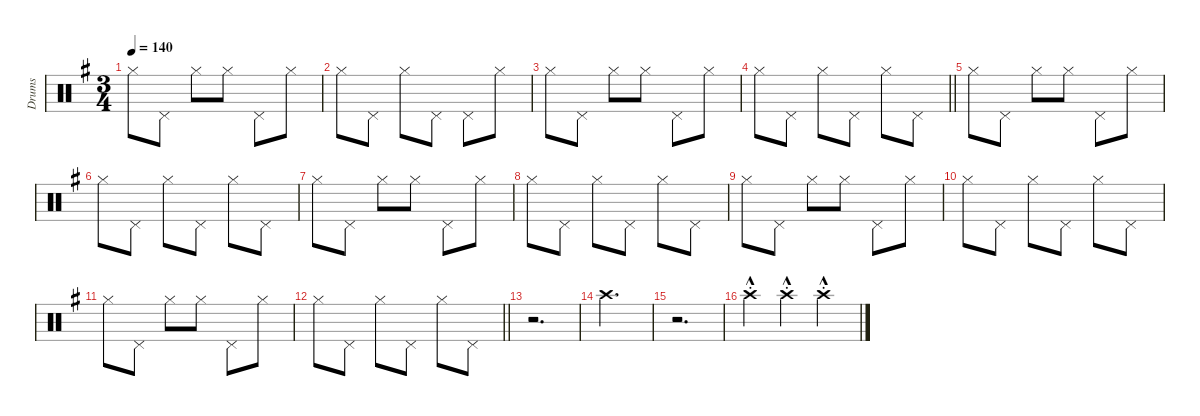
\defaultSystemsLayout 8
\hideDynamics
\bracketExtendMode groupsimilarinstruments
\firstSystemTrackNameMode fullname
\otherSystemsTrackNameOrientation horizontal
\track ("Drums" "drm.") {defaultSystemsLayout 4 instrument percussion}
\staff {score}
\articulation defaults
\ts (3 4)
\tempo 140
\clef neutral
\ks g "Hi-Hat (closed)"{acc forcenatural}.8{dy mp beam Down} "Pedal Hi-Hat (hit)"{acc forcenatural}.8{beam Down} "Hi-Hat (closed)"{acc forcenatural}.8{beam Down} "Hi-Hat (closed)"{acc forcenatural}.8{beam Down} "Pedal Hi-Hat (hit)"{acc forcenatural}.8{beam Down} "Hi-Hat (closed)"{acc forcenatural}.8{beam Down}
|
"Hi-Hat (closed)"{acc forcenatural}.8{beam Down} "Pedal Hi-Hat (hit)"{acc forcenatural}.8{beam Down} "Hi-Hat (closed)"{acc forcenatural}.8{beam Down} "Pedal Hi-Hat (hit)"{acc forcenatural}.8{beam Down} "Pedal Hi-Hat (hit)"{acc forcenatural}.8{beam Down} "Hi-Hat (closed)"{acc forcenatural}.8{beam Down} |
"Hi-Hat (closed)"{acc forcenatural}.8{beam Down} "Pedal Hi-Hat (hit)"{acc forcenatural}.8{beam Down} "Hi-Hat (closed)"{acc forcenatural}.8{beam Down} "Hi-Hat (closed)"{acc forcenatural}.8{beam Down} "Pedal Hi-Hat (hit)"{acc forcenatural}.8{beam Down} "Hi-Hat (closed)"{acc forcenatural}.8{beam Down} |
\barLineRight lightlight "Hi-Hat (closed)"{acc forcenatural}.8{beam Down} "Pedal Hi-Hat (hit)"{acc forcenatural}.8{beam Down} "Hi-Hat (closed)"{acc forcenatural}.8{beam Down} "Pedal Hi-Hat (hit)"{acc forcenatural}.8{beam Down} "Hi-Hat (closed)"{acc forcenatural}.8{beam Down} "Pedal Hi-Hat (hit)"{acc forcenatural}.8{beam Down}
|
"Hi-Hat (closed)"{acc forcenatural}.8{beam Down} "Pedal Hi-Hat (hit)"{acc forcenatural}.8{beam Down} "Hi-Hat (closed)"{acc forcenatural}.8{beam Down} "Hi-Hat (closed)"{acc forcenatural}.8{beam Down} "Pedal Hi-Hat (hit)"{acc forcenatural}.8{beam Down} "Hi-Hat (closed)"{acc forcenatural}.8{beam Down} |
"Hi-Hat (closed)"{acc forcenatural}.8{beam Down} "Pedal Hi-Hat (hit)"{acc forcenatural}.8{beam Down} "Hi-Hat (closed)"{acc forcenatural}.8{beam Down} "Pedal Hi-Hat (hit)"{acc forcenatural}.8{beam Down} "Hi-Hat (closed)"{acc forcenatural}.8{beam Down} "Pedal Hi-Hat (hit)"{acc forcenatural}.8{beam Down} |
"Hi-Hat (closed)"{acc forcenatural}.8{beam Down} "Pedal Hi-Hat (hit)"{acc forcenatural}.8{beam Down} "Hi-Hat (closed)"{acc forcenatural}.8{beam Down} "Hi-Hat (closed)"{acc forcenatural}.8{beam Down} "Pedal Hi-Hat (hit)"{acc forcenatural}.8{beam Down} "Hi-Hat (closed)"{acc forcenatural}.8{beam Down} |
"Hi-Hat (closed)"{acc forcenatural}.8{beam Down} "Pedal Hi-Hat (hit)"{acc forcenatural}.8{beam Down} "Hi-Hat (closed)"{acc forcenatural}.8{beam Down} "Pedal Hi-Hat (hit)"{acc forcenatural}.8{beam Down} "Hi-Hat (closed)"{acc forcenatural}.8{beam Down} "Pedal Hi-Hat (hit)"{acc forcenatural}.8{beam Down} |
"Hi-Hat (closed)"{acc forcenatural}.8{beam Down} "Pedal Hi-Hat (hit)"{acc forcenatural}.8{beam Down} "Hi-Hat (closed)"{acc forcenatural}.8{beam Down} "Hi-Hat (closed)"{acc forcenatural}.8{beam Down} "Pedal Hi-Hat (hit)"{acc forcenatural}.8{beam Down} "Hi-Hat (closed)"{acc forcenatural}.8{beam Down} |
"Hi-Hat (closed)"{acc forcenatural}.8{beam Down} "Pedal Hi-Hat (hit)"{acc forcenatural}.8{beam Down} "Hi-Hat (closed)"{acc forcenatural}.8{beam Down} "Pedal Hi-Hat (hit)"{acc forcenatural}.8{beam Down} "Hi-Hat (closed)"{acc forcenatural}.8{beam Down} "Pedal Hi-Hat (hit)"{acc forcenatural}.8{beam Down} |
"Hi-Hat (closed)"{acc forcenatural}.8{beam Down} "Pedal Hi-Hat (hit)"{acc forcenatural}.8{beam Down} "Hi-Hat (closed)"{acc forcenatural}.8{beam Down} "Hi-Hat (closed)"{acc forcenatural}.8{beam Down} "Pedal Hi-Hat (hit)"{acc forcenatural}.8{beam Down} "Hi-Hat (closed)"{acc forcenatural}.8{beam Down} |
\barLineRight lightlight "Hi-Hat (closed)"{acc forcenatural}.8{beam Down} "Pedal Hi-Hat (hit)"{acc forcenatural}.8{beam Down} "Hi-Hat (closed)"{acc forcenatural}.8{beam Down} "Pedal Hi-Hat (hit)"{acc forcenatural}.8{beam Down} "Hi-Hat (closed)"{acc forcenatural}.8{beam Down} "Pedal Hi-Hat (hit)"{acc forcenatural}.8{beam Down}
|
r.2{d beam Down} |
"Crash high (hit)"{acc forcenatural}.2{d dy ff beam Down} |
r.2{d beam Down} |
"Crash high (hit)"{hac st acc forcenatural}.4{dy mf beam Down} "Crash high (hit)"{hac st acc forcenatural}.4{beam Down} "Crash high (hit)"{hac st acc forcenatural}.4{beam Down}
